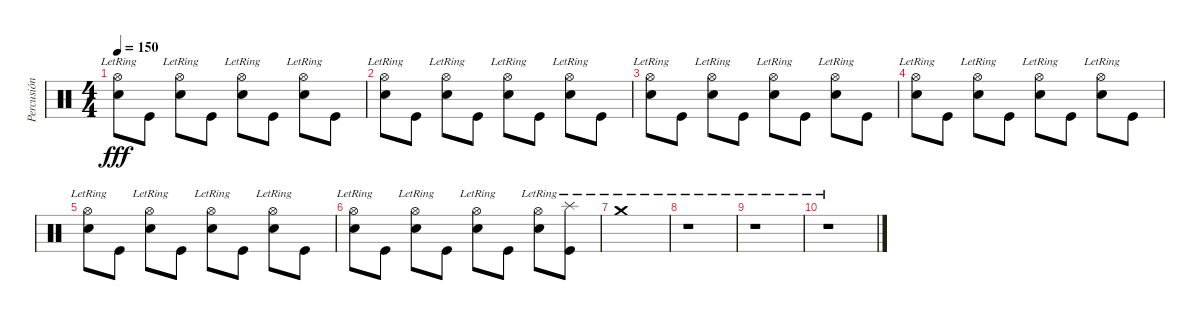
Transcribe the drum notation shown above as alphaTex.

\track ("Percusión" "Percusión") {instrument percussion}
\staff {score}
\articulation defaults
\ts (4 4)
\tempo 150
\clef neutral
\ks c
("Snare (hit) 2" "Hi-Hat (open)"{lr}).8{dy fff} "Kick (hit)".8 ("Snare (hit) 2" "Hi-Hat (open)"{lr}).8 "Kick (hit)".8 ("Snare (hit) 2" "Hi-Hat (open)"{lr}).8 "Kick (hit)".8 ("Snare (hit) 2" "Hi-Hat (open)"{lr}).8 "Kick (hit)".8 |
("Snare (hit) 2" "Hi-Hat (open)"{lr}).8 "Kick (hit)".8 ("Snare (hit) 2" "Hi-Hat (open)"{lr}).8 "Kick (hit)".8 ("Snare (hit) 2" "Hi-Hat (open)"{lr}).8 "Kick (hit)".8 ("Snare (hit) 2" "Hi-Hat (open)"{lr}).8 "Kick (hit)".8 |
("Snare (hit) 2" "Hi-Hat (open)"{lr}).8 "Kick (hit)".8 ("Snare (hit) 2" "Hi-Hat (open)"{lr}).8 "Kick (hit)".8 ("Snare (hit) 2" "Hi-Hat (open)"{lr}).8 "Kick (hit)".8 ("Snare (hit) 2" "Hi-Hat (open)"{lr}).8 "Kick (hit)".8 |
("Snare (hit) 2" "Hi-Hat (open)"{lr}).8 "Kick (hit)".8 ("Snare (hit) 2" "Hi-Hat (open)"{lr}).8 "Kick (hit)".8 ("Snare (hit) 2" "Hi-Hat (open)"{lr}).8 "Kick (hit)".8 ("Snare (hit) 2" "Hi-Hat (open)"{lr}).8 "Kick (hit)".8 |
("Snare (hit) 2" "Hi-Hat (open)"{lr}).8 "Kick (hit)".8 ("Snare (hit) 2" "Hi-Hat (open)"{lr}).8 "Kick (hit)".8 ("Snare (hit) 2" "Hi-Hat (open)"{lr}).8 "Kick (hit)".8 ("Snare (hit) 2" "Hi-Hat (open)"{lr}).8 "Kick (hit)".8 |
("Snare (hit) 2" "Hi-Hat (open)"{lr}).8 "Kick (hit)".8 ("Snare (hit) 2" "Hi-Hat (open)"{lr}).8 "Kick (hit)".8 ("Snare (hit) 2" "Hi-Hat (open)"{lr}).8 "Kick (hit)".8 ("Snare (hit) 2" "Hi-Hat (open)"{lr}).8 ("Kick (hit)" "Splash (hit)"{lr}).8 |
"Crash medium (hit)"{lr}.1 |
r.1 |
r.1 |
r.1
